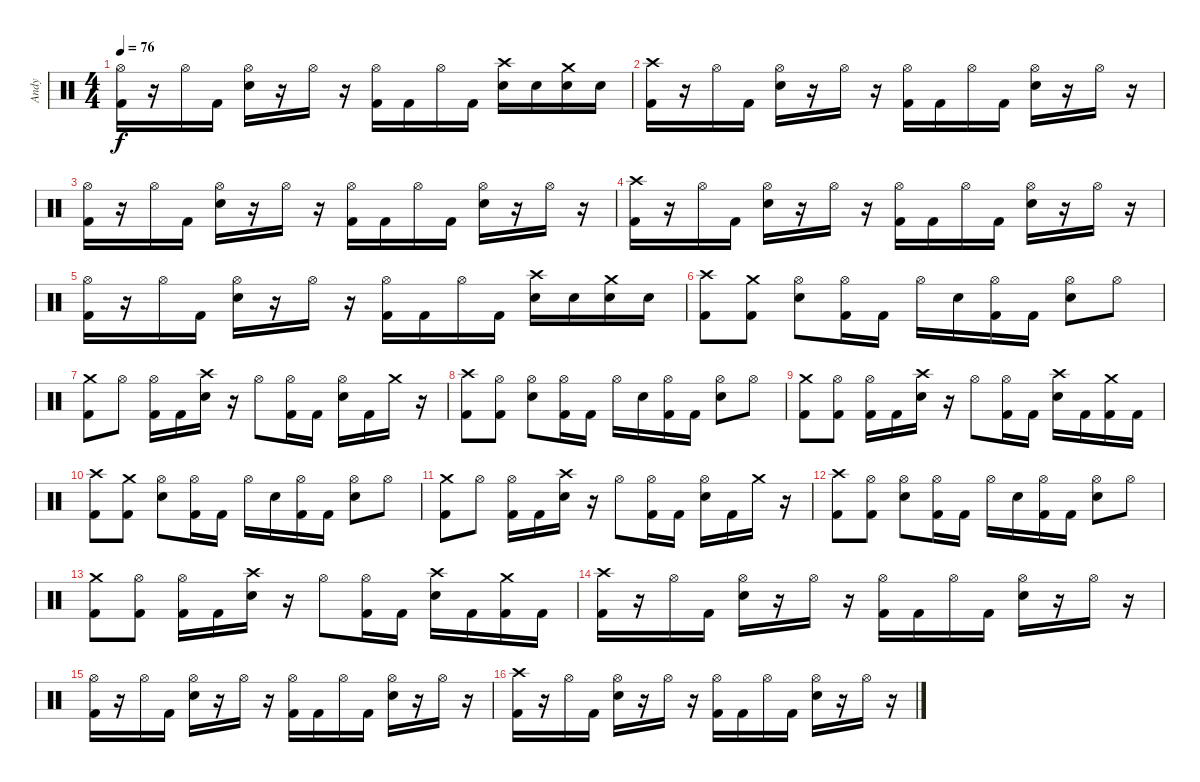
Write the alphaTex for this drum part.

\track ("Andy" "Andy") {instrument percussion}
\staff {score}
\articulation defaults
\ts (4 4)
\tempo 76
\clef neutral
\ks c
("Hi-Hat (open)" "Kick (hit) 2").16{dy f} r.16 "Hi-Hat (open)".16 "Kick (hit) 2".16 ("Hi-Hat (open)" "Electric Snare (hit)").16 r.16 "Hi-Hat (open)".16 r.16 ("Hi-Hat (open)" "Kick (hit) 2").16 "Kick (hit) 2".16 "Hi-Hat (open)".16 "Kick (hit) 2".16 ("Crash high (hit)" "Electric Snare (hit)").16 "Electric Snare (hit)".16 ("Crash medium (hit)" "Electric Snare (hit)").16 "Electric Snare (hit)".16 |
("Crash high (hit)" "Kick (hit) 2").16 r.16 "Hi-Hat (open)".16 "Kick (hit) 2".16 ("Hi-Hat (open)" "Electric Snare (hit)").16 r.16 "Hi-Hat (open)".16 r.16 ("Hi-Hat (open)" "Kick (hit) 2").16 "Kick (hit) 2".16 "Hi-Hat (open)".16 "Kick (hit) 2".16 ("Hi-Hat (open)" "Electric Snare (hit)").16 r.16 "Hi-Hat (open)".16 r.16 |
("Hi-Hat (open)" "Kick (hit) 2").16 r.16 "Hi-Hat (open)".16 "Kick (hit) 2".16 ("Hi-Hat (open)" "Electric Snare (hit)").16 r.16 "Hi-Hat (open)".16 r.16 ("Hi-Hat (open)" "Kick (hit) 2").16 "Kick (hit) 2".16 "Hi-Hat (open)".16 "Kick (hit) 2".16 ("Hi-Hat (open)" "Electric Snare (hit)").16 r.16 "Hi-Hat (open)".16 r.16 |
("Crash high (hit)" "Kick (hit) 2").16 r.16 "Hi-Hat (open)".16 "Kick (hit) 2".16 ("Hi-Hat (open)" "Electric Snare (hit)").16 r.16 "Hi-Hat (open)".16 r.16 ("Hi-Hat (open)" "Kick (hit) 2").16 "Kick (hit) 2".16 "Hi-Hat (open)".16 "Kick (hit) 2".16 ("Hi-Hat (open)" "Electric Snare (hit)").16 r.16 "Hi-Hat (open)".16 r.16 |
("Hi-Hat (open)" "Kick (hit) 2").16 r.16 "Hi-Hat (open)".16 "Kick (hit) 2".16 ("Hi-Hat (open)" "Electric Snare (hit)").16 r.16 "Hi-Hat (open)".16 r.16 ("Hi-Hat (open)" "Kick (hit) 2").16 "Kick (hit) 2".16 "Hi-Hat (open)".16 "Kick (hit) 2".16 ("Crash high (hit)" "Electric Snare (hit)").16 "Electric Snare (hit)".16 ("Crash medium (hit)" "Electric Snare (hit)").16 "Electric Snare (hit)".16 |
("Crash high (hit)" "Kick (hit) 2").8 ("Crash medium (hit)" "Kick (hit) 2").8 ("Hi-Hat (open)" "Electric Snare (hit)").8 ("Hi-Hat (open)" "Kick (hit) 2").16 "Kick (hit) 2".16 "Hi-Hat (open)".16 "Electric Snare (hit)".16 ("Hi-Hat (open)" "Kick (hit) 2").16 "Kick (hit) 2".16 ("Hi-Hat (open)" "Electric Snare (hit)").8 "Hi-Hat (open)".8 |
("Crash medium (hit)" "Kick (hit) 2").8 "Hi-Hat (open)".8 ("Hi-Hat (open)" "Kick (hit) 2").16 "Kick (hit) 2".16 ("Crash high (hit)" "Electric Snare (hit)").16 r.16 "Hi-Hat (open)".8 ("Hi-Hat (open)" "Kick (hit) 2").16 "Kick (hit) 2".16 ("Hi-Hat (open)" "Electric Snare (hit)").16 "Kick (hit) 2".16 "Crash medium (hit)".16 r.16 |
("Crash high (hit)" "Kick (hit) 2").8 ("Hi-Hat (open)" "Kick (hit) 2").8 ("Hi-Hat (open)" "Electric Snare (hit)").8 ("Hi-Hat (open)" "Kick (hit) 2").16 "Kick (hit) 2".16 "Hi-Hat (open)".16 "Electric Snare (hit)".16 ("Hi-Hat (open)" "Kick (hit) 2").16 "Kick (hit) 2".16 ("Hi-Hat (open)" "Electric Snare (hit)").8 "Hi-Hat (open)".8 |
("Crash medium (hit)" "Kick (hit) 2").8 ("Hi-Hat (open)" "Kick (hit) 2").8 ("Hi-Hat (open)" "Kick (hit) 2").16 "Kick (hit) 2".16 ("Crash high (hit)" "Electric Snare (hit)").16 r.16 "Hi-Hat (open)".8 ("Hi-Hat (open)" "Kick (hit) 2").16 "Kick (hit) 2".16 ("Crash high (hit)" "Electric Snare (hit)").16 "Kick (hit) 2".16 ("Crash medium (hit)" "Kick (hit) 2").16 "Kick (hit) 2".16 |
("Crash high (hit)" "Kick (hit) 2").8 ("Crash medium (hit)" "Kick (hit) 2").8 ("Hi-Hat (open)" "Electric Snare (hit)").8 ("Hi-Hat (open)" "Kick (hit) 2").16 "Kick (hit) 2".16 "Hi-Hat (open)".16 "Electric Snare (hit)".16 ("Hi-Hat (open)" "Kick (hit) 2").16 "Kick (hit) 2".16 ("Hi-Hat (open)" "Electric Snare (hit)").8 "Hi-Hat (open)".8 |
("Crash medium (hit)" "Kick (hit) 2").8 "Hi-Hat (open)".8 ("Hi-Hat (open)" "Kick (hit) 2").16 "Kick (hit) 2".16 ("Crash high (hit)" "Electric Snare (hit)").16 r.16 "Hi-Hat (open)".8 ("Hi-Hat (open)" "Kick (hit) 2").16 "Kick (hit) 2".16 ("Hi-Hat (open)" "Electric Snare (hit)").16 "Kick (hit) 2".16 "Crash medium (hit)".16 r.16 |
("Crash high (hit)" "Kick (hit) 2").8 ("Hi-Hat (open)" "Kick (hit) 2").8 ("Hi-Hat (open)" "Electric Snare (hit)").8 ("Hi-Hat (open)" "Kick (hit) 2").16 "Kick (hit) 2".16 "Hi-Hat (open)".16 "Electric Snare (hit)".16 ("Hi-Hat (open)" "Kick (hit) 2").16 "Kick (hit) 2".16 ("Hi-Hat (open)" "Electric Snare (hit)").8 "Hi-Hat (open)".8 |
("Crash medium (hit)" "Kick (hit) 2").8 ("Hi-Hat (open)" "Kick (hit) 2").8 ("Hi-Hat (open)" "Kick (hit) 2").16 "Kick (hit) 2".16 ("Crash high (hit)" "Electric Snare (hit)").16 r.16 "Hi-Hat (open)".8 ("Hi-Hat (open)" "Kick (hit) 2").16 "Kick (hit) 2".16 ("Crash high (hit)" "Electric Snare (hit)").16 "Kick (hit) 2".16 ("Crash medium (hit)" "Kick (hit) 2").16 "Kick (hit) 2".16 |
("Crash high (hit)" "Kick (hit) 2").16 r.16 "Hi-Hat (open)".16 "Kick (hit) 2".16 ("Hi-Hat (open)" "Electric Snare (hit)").16 r.16 "Hi-Hat (open)".16 r.16 ("Hi-Hat (open)" "Kick (hit) 2").16 "Kick (hit) 2".16 "Hi-Hat (open)".16 "Kick (hit) 2".16 ("Hi-Hat (open)" "Electric Snare (hit)").16 r.16 "Hi-Hat (open)".16 r.16 |
("Hi-Hat (open)" "Kick (hit) 2").16 r.16 "Hi-Hat (open)".16 "Kick (hit) 2".16 ("Hi-Hat (open)" "Electric Snare (hit)").16 r.16 "Hi-Hat (open)".16 r.16 ("Hi-Hat (open)" "Kick (hit) 2").16 "Kick (hit) 2".16 "Hi-Hat (open)".16 "Kick (hit) 2".16 ("Hi-Hat (open)" "Electric Snare (hit)").16 r.16 "Hi-Hat (open)".16 r.16 |
("Crash high (hit)" "Kick (hit) 2").16 r.16 "Hi-Hat (open)".16 "Kick (hit) 2".16 ("Hi-Hat (open)" "Electric Snare (hit)").16 r.16 "Hi-Hat (open)".16 r.16 ("Hi-Hat (open)" "Kick (hit) 2").16 "Kick (hit) 2".16 "Hi-Hat (open)".16 "Kick (hit) 2".16 ("Hi-Hat (open)" "Electric Snare (hit)").16 r.16 "Hi-Hat (open)".16 r.16
